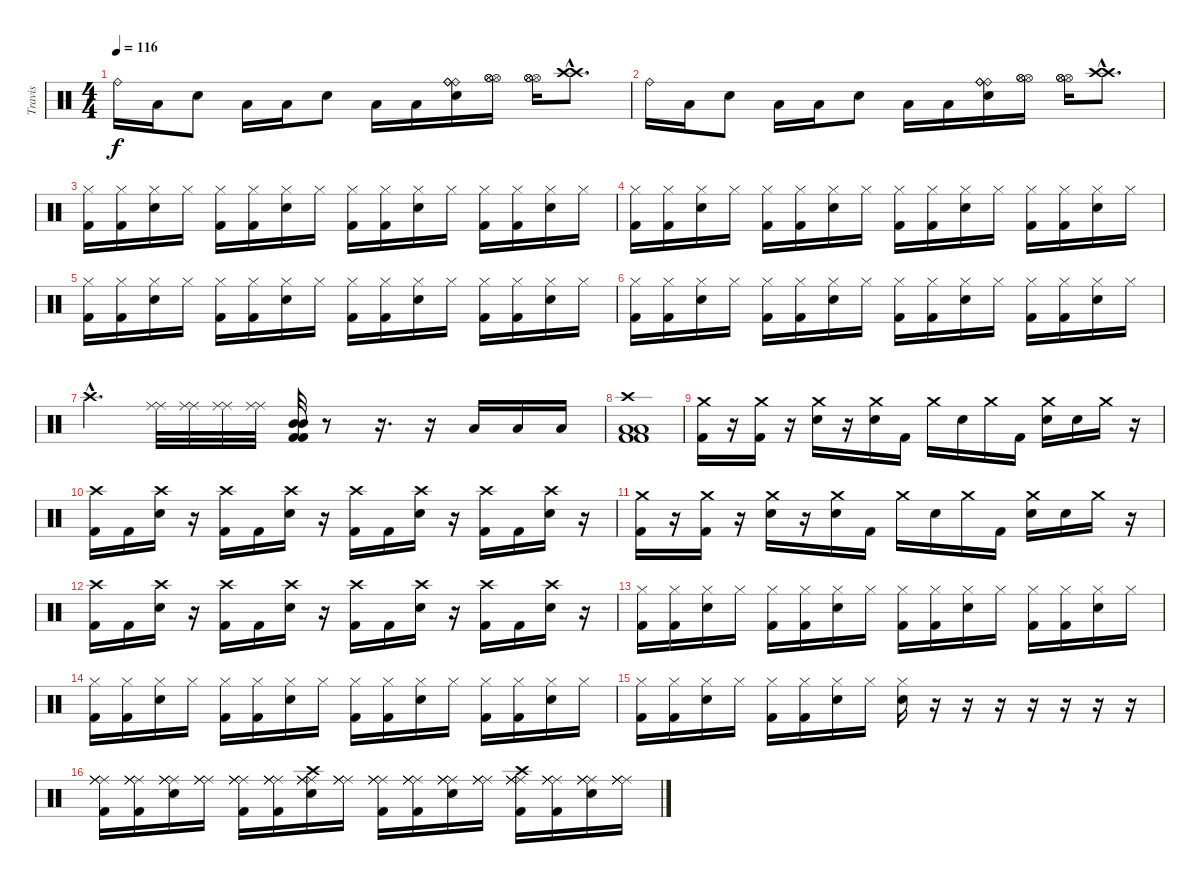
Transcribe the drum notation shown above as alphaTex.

\track ("Travis" "Travis") {instrument percussion}
\staff {score}
\articulation defaults
\ts (4 4)
\tempo 116
\clef neutral
\ks c "Ride (bell)".16{dy f} "Low Floor Tom (hit)".16 "Snare (hit) 2".8 "Low Floor Tom (hit)".16 "Low Floor Tom (hit)".16 "Snare (hit) 2".8 "Low Floor Tom (hit)".16 "Low Floor Tom (hit)".16
("Snare (hit) 2" "Ride (bell)" "Ride (bell)" "Ride (bell)").16 ("Hi-Hat (open)" "Hi-Hat (open)" "Hi-Hat (open)").16 ("Hi-Hat (open)" "Hi-Hat (open)" "Hi-Hat (open)").16 ("Crash high (hit)"{hac} "Crash high (hit)"{hac}).8{d} |
"Ride (bell)".16 "Low Floor Tom (hit)".16 "Snare (hit) 2".8 "Low Floor Tom (hit)".16 "Low Floor Tom (hit)".16 "Snare (hit) 2".8 "Low Floor Tom (hit)".16 "Low Floor Tom (hit)".16 ("Snare (hit) 2" "Ride (bell)" "Ride (bell)" "Ride (bell)").16 ("Hi-Hat (open)" "Hi-Hat (open)" "Hi-Hat (open)").16 ("Hi-Hat (open)" "Hi-Hat (open)" "Hi-Hat (open)").16 ("Crash high (hit)"{hac} "Crash high (hit)"{hac}).8{d} |
("Hi-Hat (closed)" "Kick (hit) 2").16 ("Hi-Hat (closed)" "Kick (hit) 2").16 ("Hi-Hat (closed)" "Snare (hit) 2").16 "Hi-Hat (closed)".16 ("Hi-Hat (closed)" "Kick (hit) 2").16 ("Hi-Hat (closed)" "Kick (hit) 2").16 ("Hi-Hat (closed)" "Snare (hit) 2").16 "Hi-Hat (closed)".16 ("Hi-Hat (closed)" "Kick (hit) 2").16 ("Hi-Hat (closed)" "Kick (hit) 2").16 ("Hi-Hat (closed)" "Snare (hit) 2").16 "Hi-Hat (closed)".16 ("Hi-Hat (closed)" "Kick (hit) 2").16 ("Hi-Hat (closed)" "Kick (hit) 2").16 ("Hi-Hat (closed)" "Snare (hit) 2").16 "Hi-Hat (closed)".16 |
("Hi-Hat (closed)" "Kick (hit) 2").16 ("Hi-Hat (closed)" "Kick (hit) 2").16 ("Hi-Hat (closed)" "Snare (hit) 2").16 "Hi-Hat (closed)".16 ("Hi-Hat (closed)" "Kick (hit) 2").16 ("Hi-Hat (closed)" "Kick (hit) 2").16 ("Hi-Hat (closed)" "Snare (hit) 2").16 "Hi-Hat (closed)".16 ("Hi-Hat (closed)" "Kick (hit) 2").16 ("Hi-Hat (closed)" "Kick (hit) 2").16 ("Hi-Hat (closed)" "Snare (hit) 2").16 "Hi-Hat (closed)".16 ("Hi-Hat (closed)" "Kick (hit) 2").16 ("Hi-Hat (closed)" "Kick (hit) 2").16 ("Hi-Hat (closed)" "Snare (hit) 2").16 "Hi-Hat (closed)".16 |
("Hi-Hat (closed)" "Kick (hit) 2").16 ("Hi-Hat (closed)" "Kick (hit) 2").16 ("Hi-Hat (closed)" "Snare (hit) 2").16 "Hi-Hat (closed)".16 ("Hi-Hat (closed)" "Kick (hit) 2").16 ("Hi-Hat (closed)" "Kick (hit) 2").16 ("Hi-Hat (closed)" "Snare (hit) 2").16 "Hi-Hat (closed)".16 ("Hi-Hat (closed)" "Kick (hit) 2").16 ("Hi-Hat (closed)" "Kick (hit) 2").16 ("Hi-Hat (closed)" "Snare (hit) 2").16 "Hi-Hat (closed)".16 ("Hi-Hat (closed)" "Kick (hit) 2").16 ("Hi-Hat (closed)" "Kick (hit) 2").16 ("Hi-Hat (closed)" "Snare (hit) 2").16 "Hi-Hat (closed)".16 |
("Hi-Hat (closed)" "Kick (hit) 2").16 ("Hi-Hat (closed)" "Kick (hit) 2").16 ("Hi-Hat (closed)" "Snare (hit) 2").16 "Hi-Hat (closed)".16 ("Hi-Hat (closed)" "Kick (hit) 2").16 ("Hi-Hat (closed)" "Kick (hit) 2").16 ("Hi-Hat (closed)" "Snare (hit) 2").16 "Hi-Hat (closed)".16 ("Hi-Hat (closed)" "Kick (hit) 2").16 ("Hi-Hat (closed)" "Kick (hit) 2").16 ("Hi-Hat (closed)" "Snare (hit) 2").16 "Hi-Hat (closed)".16 ("Hi-Hat (closed)" "Kick (hit) 2").16 ("Hi-Hat (closed)" "Kick (hit) 2").16 ("Hi-Hat (closed)" "Snare (hit) 2").16 "Hi-Hat (closed)".16 |
"Crash high (hit)"{hac}.4{d} ("Ride (middle)" "Ride (middle)").32 ("Ride (middle)" "Ride (middle)").32 ("Ride (middle)" "Ride (middle)").32 ("Ride (middle)" "Ride (middle)").32 ("Mid Tom (hit)" "Mid Tom (hit)" "Kick (hit) 2" "Kick (hit) 2").32 r.8 r.16{d} r.16 "Low Floor Tom (hit)".16 "Low Floor Tom (hit)".16 "Low Floor Tom (hit)".16 |
("Kick (hit) 2" "Kick (hit) 2" "Low Floor Tom (hit)" "Low Floor Tom (hit)" "Crash high (hit)").1 |
("Crash medium (hit)" "Kick (hit) 2").16 r.16 ("Crash medium (hit)" "Kick (hit) 2").16 r.16 ("Crash medium (hit)" "Snare (hit) 2").16 r.16 ("Crash medium (hit)" "Snare (hit) 2").16 "Kick (hit) 2".16 "Crash medium (hit)".16 "Snare (hit) 2".16 "Crash medium (hit)".16 "Kick (hit) 2".16 ("Crash medium (hit)" "Snare (hit) 2").16 "Snare (hit) 2".16 "Crash medium (hit)".16 r.16 |
("Crash high (hit)" "Kick (hit) 2").16 "Kick (hit) 2".16 ("Crash high (hit)" "Snare (hit) 2").16 r.16 ("Crash high (hit)" "Kick (hit) 2").16 "Kick (hit) 2".16 ("Crash high (hit)" "Snare (hit) 2").16 r.16 ("Crash high (hit)" "Kick (hit) 2").16 "Kick (hit) 2".16 ("Crash high (hit)" "Snare (hit) 2").16 r.16 ("Crash high (hit)" "Kick (hit) 2").16 "Kick (hit) 2".16 ("Crash high (hit)" "Snare (hit) 2").16 r.16 |
("Crash medium (hit)" "Kick (hit) 2").16 r.16 ("Crash medium (hit)" "Kick (hit) 2").16 r.16 ("Crash medium (hit)" "Snare (hit) 2").16 r.16 ("Crash medium (hit)" "Snare (hit) 2").16 "Kick (hit) 2".16 "Crash medium (hit)".16 "Snare (hit) 2".16 "Crash medium (hit)".16 "Kick (hit) 2".16 ("Crash medium (hit)" "Snare (hit) 2").16 "Snare (hit) 2".16 "Crash medium (hit)".16 r.16 |
("Crash high (hit)" "Kick (hit) 2").16 "Kick (hit) 2".16 ("Crash high (hit)" "Snare (hit) 2").16 r.16 ("Crash high (hit)" "Kick (hit) 2").16 "Kick (hit) 2".16 ("Crash high (hit)" "Snare (hit) 2").16 r.16 ("Crash high (hit)" "Kick (hit) 2").16 "Kick (hit) 2".16 ("Crash high (hit)" "Snare (hit) 2").16 r.16 ("Crash high (hit)" "Kick (hit) 2").16 "Kick (hit) 2".16 ("Crash high (hit)" "Snare (hit) 2").16 r.16 |
("Hi-Hat (closed)" "Kick (hit) 2").16 ("Hi-Hat (closed)" "Kick (hit) 2").16 ("Hi-Hat (closed)" "Snare (hit) 2").16 "Hi-Hat (closed)".16 ("Hi-Hat (closed)" "Kick (hit) 2").16 ("Hi-Hat (closed)" "Kick (hit) 2").16 ("Hi-Hat (closed)" "Snare (hit) 2").16 "Hi-Hat (closed)".16 ("Hi-Hat (closed)" "Kick (hit) 2").16 ("Hi-Hat (closed)" "Kick (hit) 2").16 ("Hi-Hat (closed)" "Snare (hit) 2").16 "Hi-Hat (closed)".16 ("Hi-Hat (closed)" "Kick (hit) 2").16 ("Hi-Hat (closed)" "Kick (hit) 2").16 ("Hi-Hat (closed)" "Snare (hit) 2").16 "Hi-Hat (closed)".16 |
("Hi-Hat (closed)" "Kick (hit) 2").16 ("Hi-Hat (closed)" "Kick (hit) 2").16 ("Hi-Hat (closed)" "Snare (hit) 2").16 "Hi-Hat (closed)".16 ("Hi-Hat (closed)" "Kick (hit) 2").16 ("Hi-Hat (closed)" "Kick (hit) 2").16 ("Hi-Hat (closed)" "Snare (hit) 2").16 "Hi-Hat (closed)".16 ("Hi-Hat (closed)" "Kick (hit) 2").16 ("Hi-Hat (closed)" "Kick (hit) 2").16 ("Hi-Hat (closed)" "Snare (hit) 2").16 "Hi-Hat (closed)".16 ("Hi-Hat (closed)" "Kick (hit) 2").16 ("Hi-Hat (closed)" "Kick (hit) 2").16 ("Hi-Hat (closed)" "Snare (hit) 2").16 "Hi-Hat (closed)".16 |
("Hi-Hat (closed)" "Kick (hit) 2").16 ("Hi-Hat (closed)" "Kick (hit) 2").16 ("Hi-Hat (closed)" "Snare (hit) 2").16 "Hi-Hat (closed)".16 ("Hi-Hat (closed)" "Kick (hit) 2").16 ("Hi-Hat (closed)" "Kick (hit) 2").16 ("Hi-Hat (closed)" "Snare (hit) 2").16 "Hi-Hat (closed)".16 ("Hi-Hat (closed)" "Snare (hit) 2").16 r.16 r.16 r.16 r.16 r.16 r.16 r.16 |
("Ride (middle)" "Kick (hit) 2" "Ride (middle)" "Ride (middle)" "Ride (middle)").16 ("Ride (middle)" "Kick (hit) 2" "Ride (middle)" "Ride (middle)" "Ride (middle)").16 ("Ride (middle)" "Snare (hit) 2" "Ride (middle)" "Ride (middle)" "Ride (middle)").16 ("Ride (middle)" "Ride (middle)" "Ride (middle)" "Ride (middle)").16 ("Ride (middle)" "Kick (hit) 2" "Ride (middle)" "Ride (middle)" "Ride (middle)").16 ("Ride (middle)" "Kick (hit) 2" "Ride (middle)" "Ride (middle)" "Ride (middle)").16 ("Ride (middle)" "Crash high (hit)" "Snare (hit) 2" "Ride (middle)" "Ride (middle)" "Ride (middle)").16 ("Ride (middle)" "Ride (middle)" "Ride (middle)" "Ride (middle)").16 ("Ride (middle)" "Kick (hit) 2" "Ride (middle)" "Ride (middle)" "Ride (middle)").16 ("Ride (middle)" "Kick (hit) 2" "Ride (middle)" "Ride (middle)" "Ride (middle)").16 ("Ride (middle)" "Snare (hit) 2" "Ride (middle)" "Ride (middle)" "Ride (middle)").16 ("Ride (middle)" "Ride (middle)" "Ride (middle)" "Ride (middle)").16 ("Ride (middle)" "Crash high (hit)" "Kick (hit) 2" "Ride (middle)" "Ride (middle)" "Ride (middle)").16 ("Ride (middle)" "Kick (hit) 2" "Ride (middle)" "Ride (middle)" "Ride (middle)").16 ("Ride (middle)" "Snare (hit) 2" "Ride (middle)" "Ride (middle)" "Ride (middle)").16 ("Ride (middle)" "Ride (middle)" "Ride (middle)" "Ride (middle)").16
